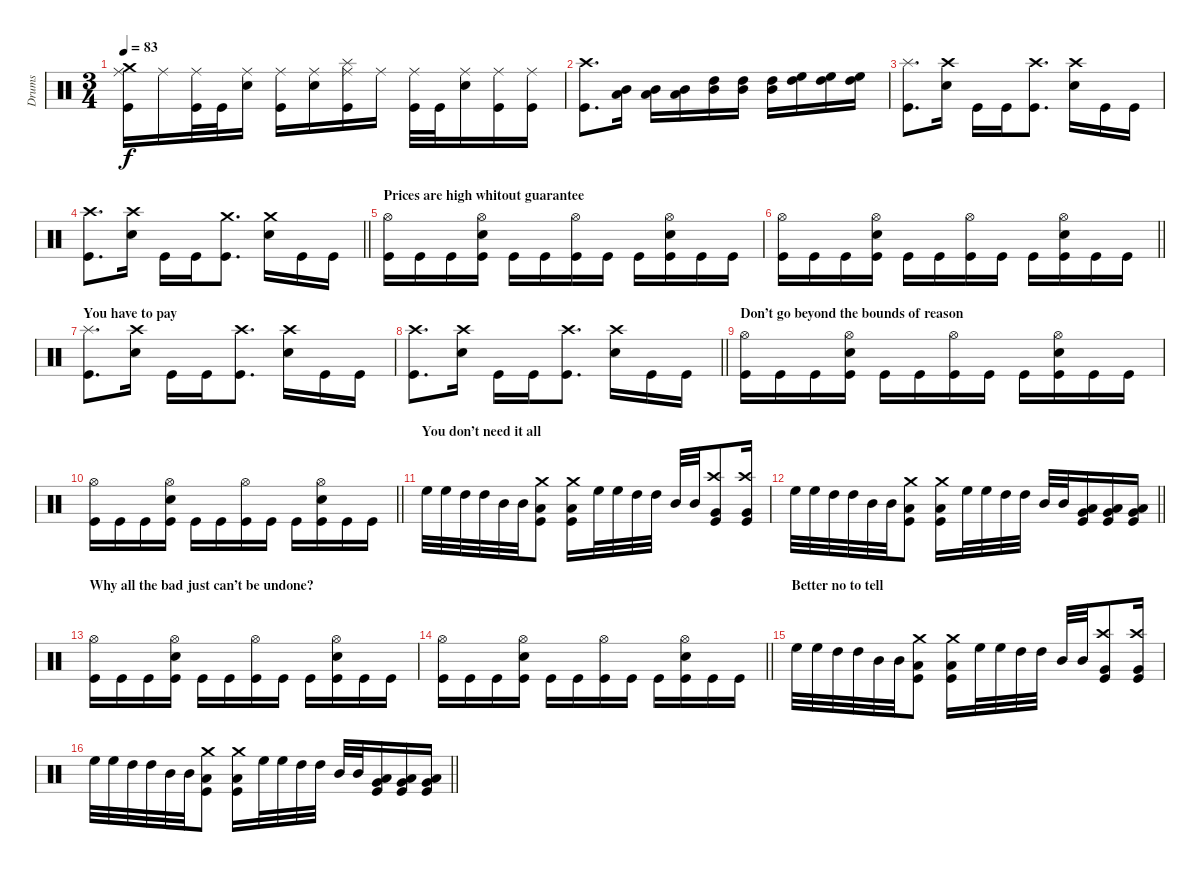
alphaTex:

\track ("Drums" "Drums") {instrument percussion}
\staff {score}
\articulation defaults
\ts (3 4)
\tempo 83
\clef neutral
\ks c
("Crash medium (hit)" "Ride (middle)" "Kick (hit)").16{dy f} "Ride (middle)".16 ("Ride (middle)" "Kick (hit)").32 "Kick (hit)".32 ("Ride (middle)" "Snare (hit) 2").16 ("Ride (middle)" "Kick (hit)").16 ("Ride (middle)" "Snare (hit) 2").16 ("Splash (hit)" "Ride (middle)" "Kick (hit)").16 "Ride (middle)".16 ("Ride (middle)" "Kick (hit)").32 "Kick (hit)".32 ("Ride (middle)" "Snare (hit) 2").16 ("Ride (middle)" "Kick (hit)").16 ("Ride (middle)" "Kick (hit)").16 |
("Crash high (hit)" "Kick (hit)").8{d} ("Mid Tom (hit)" "Low Tom (hit)").16 ("Mid Tom (hit)" "Low Tom (hit)").16 ("Mid Tom (hit)" "Low Tom (hit)").16 ("High Tom (hit)" "Mid Tom (hit)").16 ("High Tom (hit)" "Mid Tom (hit)").16 ("High Tom (hit)" "Mid Tom (hit)").16 ("High Floor Tom (hit)" "High Tom (hit)").16 ("High Floor Tom (hit)" "High Tom (hit)").16 ("High Floor Tom (hit)" "High Tom (hit)").16 |
("Splash (hit)" "Kick (hit)").8{d} ("Crash high (hit)" "Snare (hit) 2").16 "Kick (hit)".16 "Kick (hit)".16 ("Crash high (hit)" "Kick (hit)").8{d} ("Crash high (hit)" "Snare (hit) 2").16 "Kick (hit)".16 "Kick (hit)".16 |
\barLineRight lightlight
("Crash high (hit)" "Kick (hit)").8{d} ("Crash high (hit)" "Snare (hit) 2").16 "Kick (hit)".16 "Kick (hit)".16 ("Crash medium (hit)" "Kick (hit)").8{d} ("Crash medium (hit)" "Snare (hit) 2").16 "Kick (hit)".16 "Kick (hit)".16 |
\section ("" "Prices are high whitout guarantee")
("Hi-Hat (open)" "Kick (hit)").16 "Kick (hit)".16 "Kick (hit)".16 ("Hi-Hat (open)" "Snare (hit) 2" "Kick (hit)").16 "Kick (hit)".16 "Kick (hit)".16 ("Hi-Hat (open)" "Kick (hit)").16 "Kick (hit)".16 "Kick (hit)".16 ("Hi-Hat (open)" "Snare (hit) 2" "Kick (hit)").16 "Kick (hit)".16 "Kick (hit)".16 |
\barLineRight lightlight
("Hi-Hat (open)" "Kick (hit)").16 "Kick (hit)".16 "Kick (hit)".16 ("Hi-Hat (open)" "Snare (hit) 2" "Kick (hit)").16 "Kick (hit)".16 "Kick (hit)".16 ("Hi-Hat (open)" "Kick (hit)").16 "Kick (hit)".16 "Kick (hit)".16 ("Hi-Hat (open)" "Snare (hit) 2" "Kick (hit)").16 "Kick (hit)".16 "Kick (hit)".16 |
\section ("" "You have to pay")
("Splash (hit)" "Kick (hit)").8{d} ("Crash high (hit)" "Snare (hit) 2").16 "Kick (hit)".16 "Kick (hit)".16 ("Crash high (hit)" "Kick (hit)").8{d} ("Crash high (hit)" "Snare (hit) 2").16 "Kick (hit)".16 "Kick (hit)".16 |
\barLineRight lightlight
("Crash high (hit)" "Kick (hit)").8{d} ("Crash high (hit)" "Snare (hit) 2").16 "Kick (hit)".16 "Kick (hit)".16 ("Crash high (hit)" "Kick (hit)").8{d} ("Crash high (hit)" "Snare (hit) 2").16 "Kick (hit)".16 "Kick (hit)".16 |
\section ("" "Don’t go beyond the bounds of reason")
("Hi-Hat (open)" "Kick (hit)").16 "Kick (hit)".16 "Kick (hit)".16 ("Hi-Hat (open)" "Snare (hit) 2" "Kick (hit)").16 "Kick (hit)".16 "Kick (hit)".16 ("Hi-Hat (open)" "Kick (hit)").16 "Kick (hit)".16 "Kick (hit)".16 ("Hi-Hat (open)" "Snare (hit) 2" "Kick (hit)").16 "Kick (hit)".16 "Kick (hit)".16 |
\barLineRight lightlight
("Hi-Hat (open)" "Kick (hit)").16 "Kick (hit)".16 "Kick (hit)".16 ("Hi-Hat (open)" "Snare (hit) 2" "Kick (hit)").16 "Kick (hit)".16 "Kick (hit)".16 ("Hi-Hat (open)" "Kick (hit)").16 "Kick (hit)".16 "Kick (hit)".16 ("Hi-Hat (open)" "Snare (hit) 2" "Kick (hit)").16 "Kick (hit)".16 "Kick (hit)".16 |
\section ("" "You don’t need it all")
"High Floor Tom (hit)".32 "High Floor Tom (hit)".32 "High Tom (hit)".32 "High Tom (hit)".32 "Mid Tom (hit)".32 "Mid Tom (hit)".32 ("Crash medium (hit)" "Low Tom (hit)" "Kick (hit)").8 ("Crash medium (hit)" "Low Tom (hit)" "Kick (hit)").16 "High Floor Tom (hit)".32 "High Floor Tom (hit)".32 "High Tom (hit)".32 "High Tom (hit)".32 "Mid Tom (hit)".32 "Mid Tom (hit)".32 ("Crash high (hit)" "Very Low Tom (hit)" "Kick (hit)").8 ("Crash high (hit)" "Very Low Tom (hit)" "Kick (hit)").16 |
\barLineRight lightlight "High Floor Tom (hit)".32 "High Floor Tom (hit)".32 "High Tom (hit)".32 "High Tom (hit)".32 "Mid Tom (hit)".32 "Mid Tom (hit)".32
("Crash medium (hit)" "Low Tom (hit)" "Kick (hit)").8 ("Crash medium (hit)" "Low Tom (hit)" "Kick (hit)").16 "High Floor Tom (hit)".32 "High Floor Tom (hit)".32 "High Tom (hit)".32 "High Tom (hit)".32 "Mid Tom (hit)".32 "Mid Tom (hit)".32 ("Low Tom (hit)" "Very Low Tom (hit)" "Kick (hit)").16 ("Low Tom (hit)" "Very Low Tom (hit)" "Kick (hit)").16 ("Low Tom (hit)" "Very Low Tom (hit)" "Kick (hit)").16 |
\section ("" "Why all the bad just can’t be undone?")
("Hi-Hat (open)" "Kick (hit)").16 "Kick (hit)".16 "Kick (hit)".16 ("Hi-Hat (open)" "Snare (hit) 2" "Kick (hit)").16 "Kick (hit)".16 "Kick (hit)".16 ("Hi-Hat (open)" "Kick (hit)").16 "Kick (hit)".16 "Kick (hit)".16 ("Hi-Hat (open)" "Snare (hit) 2" "Kick (hit)").16 "Kick (hit)".16 "Kick (hit)".16 |
\barLineRight lightlight
("Hi-Hat (open)" "Kick (hit)").16 "Kick (hit)".16 "Kick (hit)".16 ("Hi-Hat (open)" "Snare (hit) 2" "Kick (hit)").16 "Kick (hit)".16 "Kick (hit)".16 ("Hi-Hat (open)" "Kick (hit)").16 "Kick (hit)".16 "Kick (hit)".16 ("Hi-Hat (open)" "Snare (hit) 2" "Kick (hit)").16 "Kick (hit)".16 "Kick (hit)".16 |
\section ("" "Better no to tell")
"High Floor Tom (hit)".32 "High Floor Tom (hit)".32 "High Tom (hit)".32 "High Tom (hit)".32 "Mid Tom (hit)".32 "Mid Tom (hit)".32 ("Crash medium (hit)" "Low Tom (hit)" "Kick (hit)").8 ("Crash medium (hit)" "Low Tom (hit)" "Kick (hit)").16 "High Floor Tom (hit)".32 "High Floor Tom (hit)".32 "High Tom (hit)".32 "High Tom (hit)".32 "Mid Tom (hit)".32 "Mid Tom (hit)".32 ("Crash high (hit)" "Very Low Tom (hit)" "Kick (hit)").8 ("Crash high (hit)" "Very Low Tom (hit)" "Kick (hit)").16 |
\barLineRight lightlight "High Floor Tom (hit)".32 "High Floor Tom (hit)".32 "High Tom (hit)".32 "High Tom (hit)".32 "Mid Tom (hit)".32 "Mid Tom (hit)".32
("Crash medium (hit)" "Low Tom (hit)" "Kick (hit)").8 ("Crash medium (hit)" "Low Tom (hit)" "Kick (hit)").16 "High Floor Tom (hit)".32 "High Floor Tom (hit)".32 "High Tom (hit)".32 "High Tom (hit)".32 "Mid Tom (hit)".32 "Mid Tom (hit)".32 ("Low Tom (hit)" "Very Low Tom (hit)" "Kick (hit)").16 ("Low Tom (hit)" "Very Low Tom (hit)" "Kick (hit)").16 ("Low Tom (hit)" "Very Low Tom (hit)" "Kick (hit)").16
